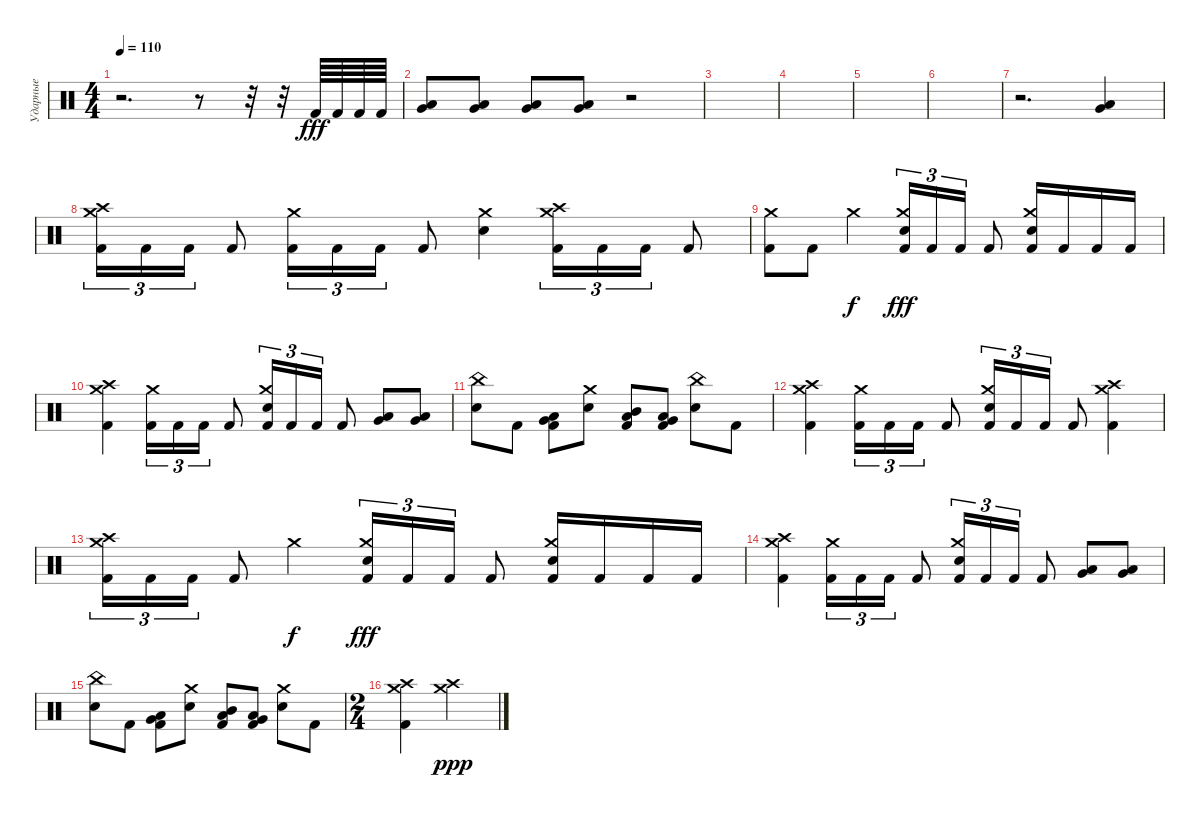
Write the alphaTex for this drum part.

\track ("Ударные" "Ударные") {instrument percussion}
\staff {score}
\articulation defaults
\ts (4 4)
\tempo 110
\clef neutral
\ks c
r.2{d dy fff} r.8 r.32 r.32 "Kick (hit) 2".64 "Kick (hit) 2".64 "Kick (hit) 2".64 "Kick (hit) 2".64 |
("Very Low Tom (hit)" "Low Floor Tom (hit)").8{volume 16} ("Very Low Tom (hit)" "Low Floor Tom (hit)").8 ("Very Low Tom (hit)" "Low Floor Tom (hit)").8 ("Very Low Tom (hit)" "Low Floor Tom (hit)").8 r.2 |
|
|
|
|
r.2{d} ("Very Low Tom (hit)" "Low Floor Tom (hit)").4 |
("Crash high (hit)" "Crash medium (hit)" "Kick (hit) 2").16{tu (3 2)} "Kick (hit) 2".16{tu (3 2)} "Kick (hit) 2".16{tu (3 2)} "Kick (hit) 2".8 ("Crash medium (hit)" "Kick (hit) 2").16{tu (3 2)} "Kick (hit) 2".16{tu (3 2)} "Kick (hit) 2".16{tu (3 2)} "Kick (hit) 2".8 ("Crash medium (hit)" "Electric Snare (hit)").4 ("Crash high (hit)" "Crash medium (hit)" "Kick (hit) 2").16{tu (3 2)} "Kick (hit) 2".16{tu (3 2)} "Kick (hit) 2".16{tu (3 2)} "Kick (hit) 2".8 |
("Crash medium (hit)" "Kick (hit) 2").8 "Kick (hit) 2".8 "Crash medium (hit)".4{dy f} ("Crash medium (hit)" "Electric Snare (hit)" "Kick (hit) 2").16{tu (3 2) dy fff} "Kick (hit) 2".16{tu (3 2)} "Kick (hit) 2".16{tu (3 2)} "Kick (hit) 2".8 ("Crash medium (hit)" "Electric Snare (hit)" "Kick (hit) 2").16 "Kick (hit) 2".16 "Kick (hit) 2".16 "Kick (hit) 2".16 |
("Crash high (hit)" "Crash medium (hit)" "Kick (hit) 2").4 ("Crash medium (hit)" "Kick (hit) 2").16{tu (3 2)} "Kick (hit) 2".16{tu (3 2)} "Kick (hit) 2".16{tu (3 2)} "Kick (hit) 2".8 ("Crash medium (hit)" "Electric Snare (hit)" "Kick (hit) 2").16{tu (3 2)} "Kick (hit) 2".16{tu (3 2)} "Kick (hit) 2".16{tu (3 2)} "Kick (hit) 2".8 ("Very Low Tom (hit)" "Low Floor Tom (hit)").8 ("Very Low Tom (hit)" "Low Floor Tom (hit)").8 |
("China (hit)" "Electric Snare (hit)").8 "Kick (hit) 2".8 ("Very Low Tom (hit)" "Low Floor Tom (hit)" "Kick (hit) 2").8 ("Crash medium (hit)" "Electric Snare (hit)").8 ("Mid Tom (hit)" "Low Floor Tom (hit)" "Kick (hit) 2").8 ("Very Low Tom (hit)" "Low Floor Tom (hit)" "Kick (hit) 2").8 ("China (hit)" "Electric Snare (hit)").8 "Kick (hit) 2".8 |
("Crash high (hit)" "Crash medium (hit)" "Kick (hit) 2").4 ("Crash medium (hit)" "Kick (hit) 2").16{tu (3 2)} "Kick (hit) 2".16{tu (3 2)} "Kick (hit) 2".16{tu (3 2)} "Kick (hit) 2".8 ("Crash medium (hit)" "Electric Snare (hit)" "Kick (hit) 2").16{tu (3 2)} "Kick (hit) 2".16{tu (3 2)} "Kick (hit) 2".16{tu (3 2)} "Kick (hit) 2".8 ("Crash high (hit)" "Crash medium (hit)" "Kick (hit) 2").4 |
("Crash high (hit)" "Crash medium (hit)" "Kick (hit) 2").16{tu (3 2)} "Kick (hit) 2".16{tu (3 2)} "Kick (hit) 2".16{tu (3 2)} "Kick (hit) 2".8 "Crash medium (hit)".4{dy f} ("Crash medium (hit)" "Electric Snare (hit)" "Kick (hit) 2").16{tu (3 2) dy fff} "Kick (hit) 2".16{tu (3 2)} "Kick (hit) 2".16{tu (3 2)} "Kick (hit) 2".8 ("Crash medium (hit)" "Electric Snare (hit)" "Kick (hit) 2").16 "Kick (hit) 2".16 "Kick (hit) 2".16 "Kick (hit) 2".16 |
("Crash high (hit)" "Crash medium (hit)" "Kick (hit) 2").4 ("Crash medium (hit)" "Kick (hit) 2").16{tu (3 2)} "Kick (hit) 2".16{tu (3 2)} "Kick (hit) 2".16{tu (3 2)} "Kick (hit) 2".8 ("Crash medium (hit)" "Electric Snare (hit)" "Kick (hit) 2").16{tu (3 2)} "Kick (hit) 2".16{tu (3 2)} "Kick (hit) 2".16{tu (3 2)} "Kick (hit) 2".8 ("Very Low Tom (hit)" "Low Floor Tom (hit)").8 ("Very Low Tom (hit)" "Low Floor Tom (hit)").8 |
("China (hit)" "Electric Snare (hit)").8 "Kick (hit) 2".8 ("Very Low Tom (hit)" "Low Floor Tom (hit)" "Kick (hit) 2").8 ("Crash medium (hit)" "Electric Snare (hit)").8 ("Mid Tom (hit)" "Low Floor Tom (hit)" "Kick (hit) 2").8 ("Very Low Tom (hit)" "Low Floor Tom (hit)" "Kick (hit) 2").8 ("Crash medium (hit)" "Electric Snare (hit)").8 "Kick (hit) 2".8 |
\ts (2 4)
("Crash high (hit)" "Crash medium (hit)" "Kick (hit) 2").4 ("Crash high (hit)" "Crash medium (hit)").4{dy ppp}
